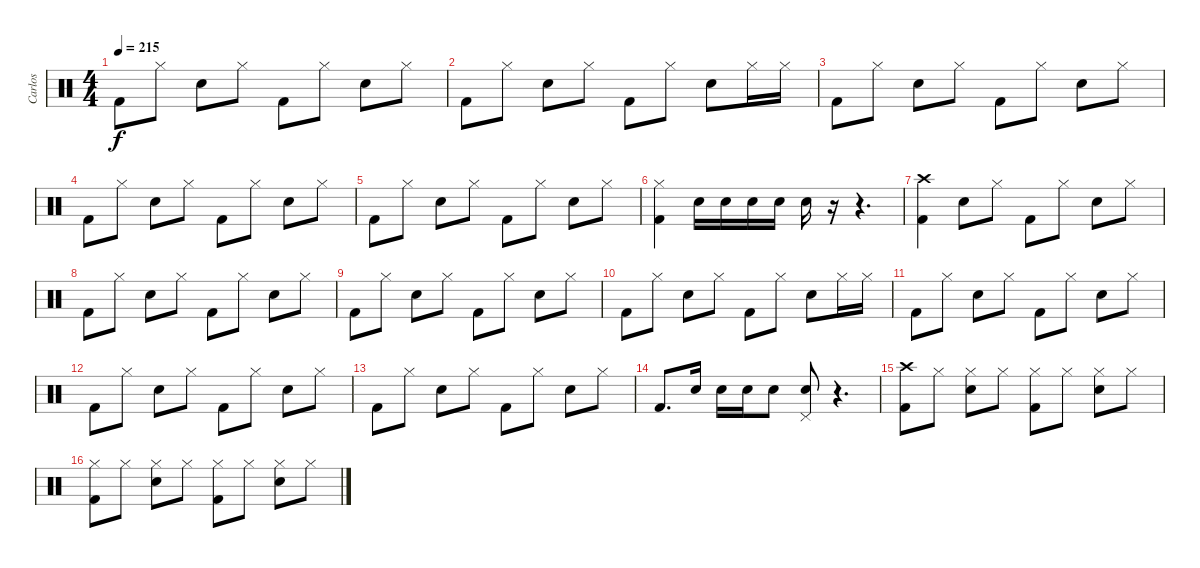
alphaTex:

\track ("Carlos" "Carlos") {instrument percussion}
\staff {score}
\articulation defaults
\ts (4 4)
\tempo 215
\clef neutral
\ks c "Kick (hit) 2".8{dy f} "Hi-Hat (closed)".8 "Snare (hit) 2".8 "Hi-Hat (closed)".8 "Kick (hit) 2".8 "Hi-Hat (closed)".8 "Snare (hit) 2".8 "Hi-Hat (closed)".8
|
"Kick (hit) 2".8 "Hi-Hat (closed)".8 "Snare (hit) 2".8 "Hi-Hat (closed)".8 "Kick (hit) 2".8 "Hi-Hat (closed)".8 "Snare (hit) 2".8 "Hi-Hat (closed)".16 "Hi-Hat (closed)".16 |
"Kick (hit) 2".8 "Hi-Hat (closed)".8 "Snare (hit) 2".8 "Hi-Hat (closed)".8 "Kick (hit) 2".8 "Hi-Hat (closed)".8 "Snare (hit) 2".8 "Hi-Hat (closed)".8 |
"Kick (hit) 2".8 "Hi-Hat (closed)".8 "Snare (hit) 2".8 "Hi-Hat (closed)".8 "Kick (hit) 2".8 "Hi-Hat (closed)".8 "Snare (hit) 2".8 "Hi-Hat (closed)".8 |
"Kick (hit) 2".8 "Hi-Hat (closed)".8 "Snare (hit) 2".8 "Hi-Hat (closed)".8 "Kick (hit) 2".8 "Hi-Hat (closed)".8 "Snare (hit) 2".8 "Hi-Hat (closed)".8 |
("Hi-Hat (closed)" "Kick (hit) 2").4 "Snare (hit) 2".16 "Snare (hit) 2".16 "Snare (hit) 2".16 "Snare (hit) 2".16 "Snare (hit) 2".16 r.16 r.4{d} |
("Crash high (hit)" "Kick (hit) 2").4 "Snare (hit) 2".8 "Hi-Hat (closed)".8 "Kick (hit) 2".8 "Hi-Hat (closed)".8 "Snare (hit) 2".8 "Hi-Hat (closed)".8 |
"Kick (hit) 2".8 "Hi-Hat (closed)".8 "Snare (hit) 2".8 "Hi-Hat (closed)".8 "Kick (hit) 2".8 "Hi-Hat (closed)".8 "Snare (hit) 2".8 "Hi-Hat (closed)".8 |
"Kick (hit) 2".8 "Hi-Hat (closed)".8 "Snare (hit) 2".8 "Hi-Hat (closed)".8 "Kick (hit) 2".8 "Hi-Hat (closed)".8 "Snare (hit) 2".8 "Hi-Hat (closed)".8 |
"Kick (hit) 2".8 "Hi-Hat (closed)".8 "Snare (hit) 2".8 "Hi-Hat (closed)".8 "Kick (hit) 2".8 "Hi-Hat (closed)".8 "Snare (hit) 2".8 "Hi-Hat (closed)".16 "Hi-Hat (closed)".16 |
"Kick (hit) 2".8 "Hi-Hat (closed)".8 "Snare (hit) 2".8 "Hi-Hat (closed)".8 "Kick (hit) 2".8 "Hi-Hat (closed)".8 "Snare (hit) 2".8 "Hi-Hat (closed)".8 |
"Kick (hit) 2".8 "Hi-Hat (closed)".8 "Snare (hit) 2".8 "Hi-Hat (closed)".8 "Kick (hit) 2".8 "Hi-Hat (closed)".8 "Snare (hit) 2".8 "Hi-Hat (closed)".8 |
"Kick (hit) 2".8 "Hi-Hat (closed)".8 "Snare (hit) 2".8 "Hi-Hat (closed)".8 "Kick (hit) 2".8 "Hi-Hat (closed)".8 "Snare (hit) 2".8 "Hi-Hat (closed)".8 |
"Kick (hit) 2".8{d} "Snare (hit) 2".16 "Snare (hit) 2".16 "Snare (hit) 2".16 "Snare (hit) 2".8 ("Pedal Hi-Hat (hit)" "Snare (hit) 2").8 r.4{d} |
("Crash high (hit)" "Kick (hit) 2").8 "Hi-Hat (closed)".8 ("Hi-Hat (closed)" "Snare (hit) 2").8 "Hi-Hat (closed)".8 ("Hi-Hat (closed)" "Kick (hit) 2").8 "Hi-Hat (closed)".8 ("Hi-Hat (closed)" "Snare (hit) 2").8 "Hi-Hat (closed)".8 |
("Hi-Hat (closed)" "Kick (hit) 2").8 "Hi-Hat (closed)".8 ("Hi-Hat (closed)" "Snare (hit) 2").8 "Hi-Hat (closed)".8 ("Hi-Hat (closed)" "Kick (hit) 2").8 "Hi-Hat (closed)".8 ("Hi-Hat (closed)" "Snare (hit) 2").8 "Hi-Hat (closed)".8
